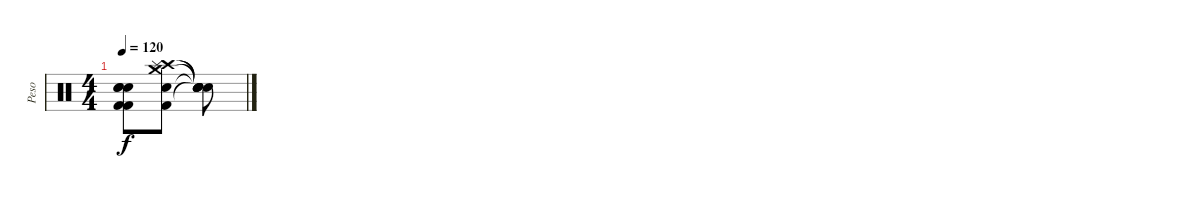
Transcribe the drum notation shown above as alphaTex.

\track ("Peso" "Peso") {instrument percussion}
\staff {score}
\articulation defaults
\ts (4 4)
\tempo 120
\clef neutral
\ks c
("Kick (hit) 2" "Kick (hit) 2" "Snare (hit) 2" "Snare (hit) 2" "Snare (hit) 2").8{dy f} ("Crash medium (hit)" "Crash high (hit)" "Splash (hit)" "Snare (hit) 2" "Kick (hit) 2").8 ("Snare (hit)"{t} "Snare (hit)"{t} "Snare (hit)"{t} "Snare (hit)"{t} "Snare (hit)"{t}).8
